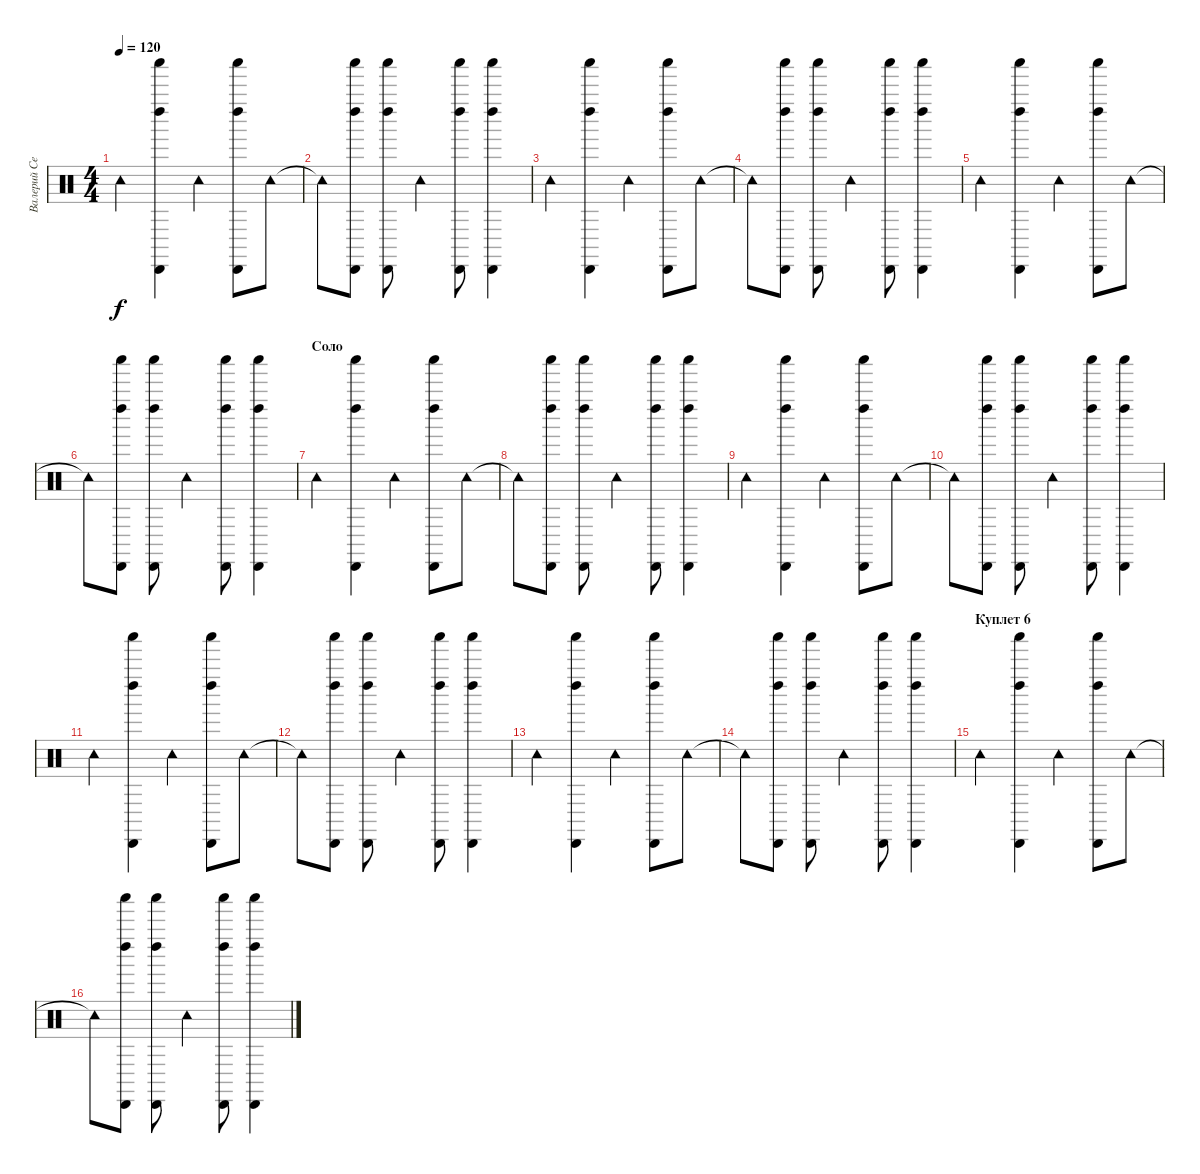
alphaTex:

\track ("Валерий Северин" "Валерий Се") {instrument percussion}
\staff {score}
\articulation defaults
\ts (4 4)
\tempo 120
\clef neutral
\ks c "Tambourine (hit)".4{dy f}
("Left Maraca (hit)" "Cabasa (hit)" "Shaker (hit)").4 "Tambourine (hit)".4 ("Left Maraca (hit)" "Cabasa (hit)" "Shaker (hit)").8 "Tambourine (hit)".8 |
"Tambourine (hit)"{t}.8 ("Left Maraca (hit)" "Cabasa (hit)" "Shaker (hit)").8 ("Left Maraca (hit)" "Cabasa (hit)" "Shaker (hit)").8 "Tambourine (hit)".4 ("Left Maraca (hit)" "Cabasa (hit)" "Shaker (hit)").8 ("Left Maraca (hit)" "Cabasa (hit)" "Shaker (hit)").4 |
"Tambourine (hit)".4 ("Left Maraca (hit)" "Cabasa (hit)" "Shaker (hit)").4 "Tambourine (hit)".4 ("Left Maraca (hit)" "Cabasa (hit)" "Shaker (hit)").8 "Tambourine (hit)".8 |
"Tambourine (hit)"{t}.8 ("Left Maraca (hit)" "Cabasa (hit)" "Shaker (hit)").8 ("Left Maraca (hit)" "Cabasa (hit)" "Shaker (hit)").8 "Tambourine (hit)".4 ("Left Maraca (hit)" "Cabasa (hit)" "Shaker (hit)").8 ("Left Maraca (hit)" "Cabasa (hit)" "Shaker (hit)").4 |
"Tambourine (hit)".4 ("Left Maraca (hit)" "Cabasa (hit)" "Shaker (hit)").4 "Tambourine (hit)".4 ("Left Maraca (hit)" "Cabasa (hit)" "Shaker (hit)").8 "Tambourine (hit)".8 |
"Tambourine (hit)"{t}.8 ("Left Maraca (hit)" "Cabasa (hit)" "Shaker (hit)").8 ("Left Maraca (hit)" "Cabasa (hit)" "Shaker (hit)").8 "Tambourine (hit)".4 ("Left Maraca (hit)" "Cabasa (hit)" "Shaker (hit)").8 ("Left Maraca (hit)" "Cabasa (hit)" "Shaker (hit)").4 |
\section ("" "Соло")
"Tambourine (hit)".4 ("Left Maraca (hit)" "Cabasa (hit)" "Shaker (hit)").4 "Tambourine (hit)".4 ("Left Maraca (hit)" "Cabasa (hit)" "Shaker (hit)").8 "Tambourine (hit)".8 |
"Tambourine (hit)"{t}.8 ("Left Maraca (hit)" "Cabasa (hit)" "Shaker (hit)").8 ("Left Maraca (hit)" "Cabasa (hit)" "Shaker (hit)").8 "Tambourine (hit)".4 ("Left Maraca (hit)" "Cabasa (hit)" "Shaker (hit)").8 ("Left Maraca (hit)" "Cabasa (hit)" "Shaker (hit)").4 |
"Tambourine (hit)".4 ("Left Maraca (hit)" "Cabasa (hit)" "Shaker (hit)").4 "Tambourine (hit)".4 ("Left Maraca (hit)" "Cabasa (hit)" "Shaker (hit)").8 "Tambourine (hit)".8 |
"Tambourine (hit)"{t}.8 ("Left Maraca (hit)" "Cabasa (hit)" "Shaker (hit)").8 ("Left Maraca (hit)" "Cabasa (hit)" "Shaker (hit)").8 "Tambourine (hit)".4 ("Left Maraca (hit)" "Cabasa (hit)" "Shaker (hit)").8 ("Left Maraca (hit)" "Cabasa (hit)" "Shaker (hit)").4 |
"Tambourine (hit)".4 ("Left Maraca (hit)" "Cabasa (hit)" "Shaker (hit)").4 "Tambourine (hit)".4 ("Left Maraca (hit)" "Cabasa (hit)" "Shaker (hit)").8 "Tambourine (hit)".8 |
"Tambourine (hit)"{t}.8 ("Left Maraca (hit)" "Cabasa (hit)" "Shaker (hit)").8 ("Left Maraca (hit)" "Cabasa (hit)" "Shaker (hit)").8 "Tambourine (hit)".4 ("Left Maraca (hit)" "Cabasa (hit)" "Shaker (hit)").8 ("Left Maraca (hit)" "Cabasa (hit)" "Shaker (hit)").4 |
"Tambourine (hit)".4 ("Left Maraca (hit)" "Cabasa (hit)" "Shaker (hit)").4 "Tambourine (hit)".4 ("Left Maraca (hit)" "Cabasa (hit)" "Shaker (hit)").8 "Tambourine (hit)".8 |
"Tambourine (hit)"{t}.8 ("Left Maraca (hit)" "Cabasa (hit)" "Shaker (hit)").8 ("Left Maraca (hit)" "Cabasa (hit)" "Shaker (hit)").8 "Tambourine (hit)".4 ("Left Maraca (hit)" "Cabasa (hit)" "Shaker (hit)").8 ("Left Maraca (hit)" "Cabasa (hit)" "Shaker (hit)").4 |
\section ("" "Куплет 6")
"Tambourine (hit)".4 ("Left Maraca (hit)" "Cabasa (hit)" "Shaker (hit)").4 "Tambourine (hit)".4 ("Left Maraca (hit)" "Cabasa (hit)" "Shaker (hit)").8 "Tambourine (hit)".8 |
"Tambourine (hit)"{t}.8 ("Left Maraca (hit)" "Cabasa (hit)" "Shaker (hit)").8 ("Left Maraca (hit)" "Cabasa (hit)" "Shaker (hit)").8 "Tambourine (hit)".4 ("Left Maraca (hit)" "Cabasa (hit)" "Shaker (hit)").8 ("Left Maraca (hit)" "Cabasa (hit)" "Shaker (hit)").4
